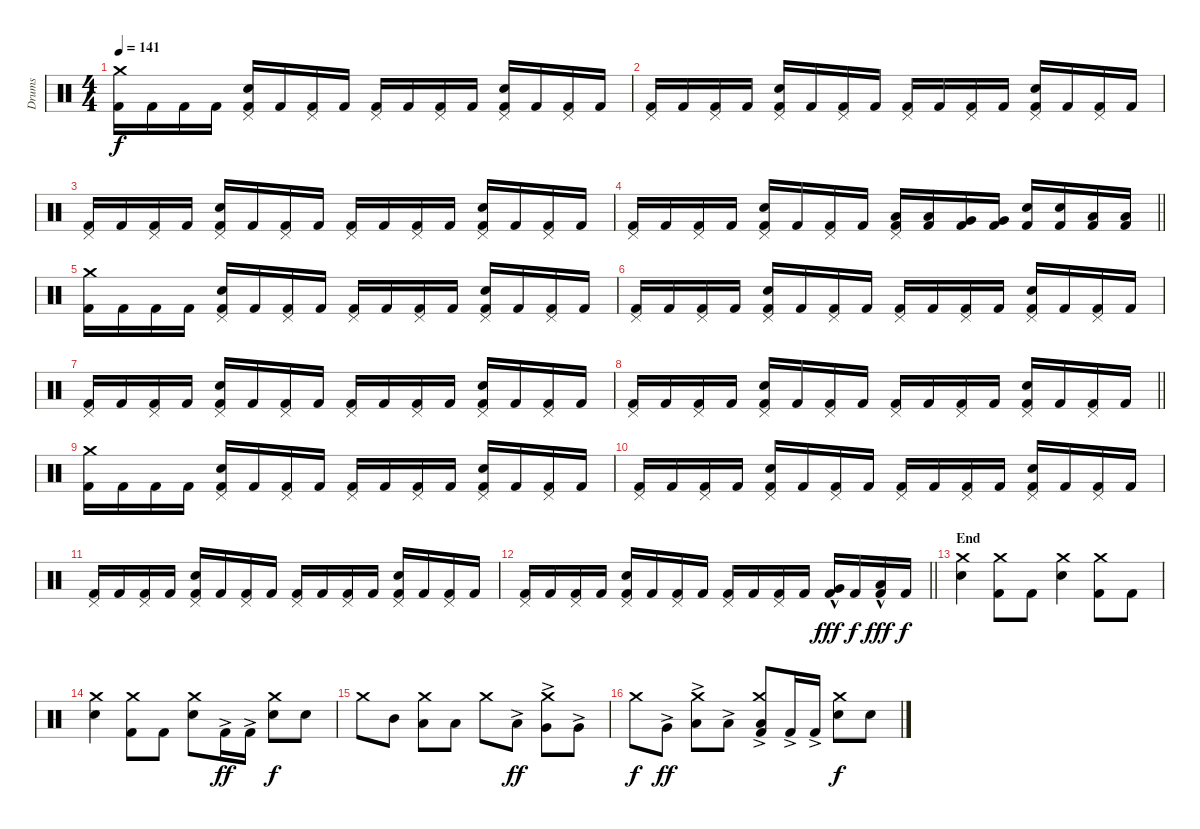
\track ("Drums" "Drums") {instrument percussion}
\staff {score}
\articulation defaults
\ts (4 4)
\section ("" "")
\tempo 141
\clef neutral
\ks c
("Kick (hit) 2" "Crash medium (hit)").16{dy f} "Kick (hit) 2".16 "Kick (hit) 2".16 "Kick (hit) 2".16 ("Kick (hit) 2" "Snare (hit) 2" "Pedal Hi-Hat (hit)").16 "Kick (hit) 2".16 ("Kick (hit) 2" "Pedal Hi-Hat (hit)").16 "Kick (hit) 2".16 ("Kick (hit) 2" "Pedal Hi-Hat (hit)").16 "Kick (hit) 2".16 ("Kick (hit) 2" "Pedal Hi-Hat (hit)").16 "Kick (hit) 2".16 ("Kick (hit) 2" "Snare (hit) 2" "Pedal Hi-Hat (hit)").16 "Kick (hit) 2".16 ("Kick (hit) 2" "Pedal Hi-Hat (hit)").16 "Kick (hit) 2".16 |
("Kick (hit) 2" "Pedal Hi-Hat (hit)").16 "Kick (hit) 2".16 ("Kick (hit) 2" "Pedal Hi-Hat (hit)").16 "Kick (hit) 2".16 ("Kick (hit) 2" "Snare (hit) 2" "Pedal Hi-Hat (hit)").16 "Kick (hit) 2".16 ("Kick (hit) 2" "Pedal Hi-Hat (hit)").16 "Kick (hit) 2".16 ("Kick (hit) 2" "Pedal Hi-Hat (hit)").16 "Kick (hit) 2".16 ("Kick (hit) 2" "Pedal Hi-Hat (hit)").16 "Kick (hit) 2".16 ("Kick (hit) 2" "Snare (hit) 2" "Pedal Hi-Hat (hit)").16 "Kick (hit) 2".16 ("Kick (hit) 2" "Pedal Hi-Hat (hit)").16 "Kick (hit) 2".16 |
("Kick (hit) 2" "Pedal Hi-Hat (hit)").16 "Kick (hit) 2".16 ("Kick (hit) 2" "Pedal Hi-Hat (hit)").16 "Kick (hit) 2".16 ("Kick (hit) 2" "Snare (hit) 2" "Pedal Hi-Hat (hit)").16 "Kick (hit) 2".16 ("Kick (hit) 2" "Pedal Hi-Hat (hit)").16 "Kick (hit) 2".16 ("Kick (hit) 2" "Pedal Hi-Hat (hit)").16 "Kick (hit) 2".16 ("Kick (hit) 2" "Pedal Hi-Hat (hit)").16 "Kick (hit) 2".16 ("Kick (hit) 2" "Snare (hit) 2" "Pedal Hi-Hat (hit)").16 "Kick (hit) 2".16 ("Kick (hit) 2" "Pedal Hi-Hat (hit)").16 "Kick (hit) 2".16 |
\barLineRight lightlight
("Kick (hit) 2" "Pedal Hi-Hat (hit)").16 "Kick (hit) 2".16 ("Kick (hit) 2" "Pedal Hi-Hat (hit)").16 "Kick (hit) 2".16 ("Kick (hit) 2" "Snare (hit) 2" "Pedal Hi-Hat (hit)").16 "Kick (hit) 2".16 ("Kick (hit) 2" "Pedal Hi-Hat (hit)").16 "Kick (hit) 2".16 ("Kick (hit) 2" "Low Tom (hit)" "Pedal Hi-Hat (hit)").16 ("Kick (hit) 2" "Low Tom (hit)").16 ("Kick (hit) 2" "Very Low Tom (hit)").16 ("Kick (hit) 2" "Very Low Tom (hit)").16 ("Kick (hit) 2" "Snare (hit) 2").16 ("Kick (hit) 2" "Snare (hit) 2").16 ("Kick (hit) 2" "Low Floor Tom (hit)").16 ("Kick (hit) 2" "Low Floor Tom (hit)").16 |
\section ("" "")
("Kick (hit) 2" "Crash medium (hit)").16 "Kick (hit) 2".16 "Kick (hit) 2".16 "Kick (hit) 2".16 ("Kick (hit) 2" "Snare (hit) 2" "Pedal Hi-Hat (hit)").16 "Kick (hit) 2".16 ("Kick (hit) 2" "Pedal Hi-Hat (hit)").16 "Kick (hit) 2".16 ("Kick (hit) 2" "Pedal Hi-Hat (hit)").16 "Kick (hit) 2".16 ("Kick (hit) 2" "Pedal Hi-Hat (hit)").16 "Kick (hit) 2".16 ("Kick (hit) 2" "Snare (hit) 2" "Pedal Hi-Hat (hit)").16 "Kick (hit) 2".16 ("Kick (hit) 2" "Pedal Hi-Hat (hit)").16 "Kick (hit) 2".16 |
("Kick (hit) 2" "Pedal Hi-Hat (hit)").16 "Kick (hit) 2".16 ("Kick (hit) 2" "Pedal Hi-Hat (hit)").16 "Kick (hit) 2".16 ("Kick (hit) 2" "Snare (hit) 2" "Pedal Hi-Hat (hit)").16 "Kick (hit) 2".16 ("Kick (hit) 2" "Pedal Hi-Hat (hit)").16 "Kick (hit) 2".16 ("Kick (hit) 2" "Pedal Hi-Hat (hit)").16 "Kick (hit) 2".16 ("Kick (hit) 2" "Pedal Hi-Hat (hit)").16 "Kick (hit) 2".16 ("Kick (hit) 2" "Snare (hit) 2" "Pedal Hi-Hat (hit)").16 "Kick (hit) 2".16 ("Kick (hit) 2" "Pedal Hi-Hat (hit)").16 "Kick (hit) 2".16 |
("Kick (hit) 2" "Pedal Hi-Hat (hit)").16 "Kick (hit) 2".16 ("Kick (hit) 2" "Pedal Hi-Hat (hit)").16 "Kick (hit) 2".16 ("Kick (hit) 2" "Snare (hit) 2" "Pedal Hi-Hat (hit)").16 "Kick (hit) 2".16 ("Kick (hit) 2" "Pedal Hi-Hat (hit)").16 "Kick (hit) 2".16 ("Kick (hit) 2" "Pedal Hi-Hat (hit)").16 "Kick (hit) 2".16 ("Kick (hit) 2" "Pedal Hi-Hat (hit)").16 "Kick (hit) 2".16 ("Kick (hit) 2" "Snare (hit) 2" "Pedal Hi-Hat (hit)").16 "Kick (hit) 2".16 ("Kick (hit) 2" "Pedal Hi-Hat (hit)").16 "Kick (hit) 2".16 |
\barLineRight lightlight
("Kick (hit) 2" "Pedal Hi-Hat (hit)").16 "Kick (hit) 2".16 ("Kick (hit) 2" "Pedal Hi-Hat (hit)").16 "Kick (hit) 2".16 ("Kick (hit) 2" "Snare (hit) 2" "Pedal Hi-Hat (hit)").16 "Kick (hit) 2".16 ("Kick (hit) 2" "Pedal Hi-Hat (hit)").16 "Kick (hit) 2".16 ("Kick (hit) 2" "Pedal Hi-Hat (hit)").16 "Kick (hit) 2".16 ("Kick (hit) 2" "Pedal Hi-Hat (hit)").16 "Kick (hit) 2".16 ("Kick (hit) 2" "Snare (hit) 2" "Pedal Hi-Hat (hit)").16 "Kick (hit) 2".16 ("Kick (hit) 2" "Pedal Hi-Hat (hit)").16 "Kick (hit) 2".16 |
\section ("" "")
("Kick (hit) 2" "Crash medium (hit)").16 "Kick (hit) 2".16 "Kick (hit) 2".16 "Kick (hit) 2".16 ("Kick (hit) 2" "Snare (hit) 2" "Pedal Hi-Hat (hit)").16 "Kick (hit) 2".16 ("Kick (hit) 2" "Pedal Hi-Hat (hit)").16 "Kick (hit) 2".16 ("Kick (hit) 2" "Pedal Hi-Hat (hit)").16 "Kick (hit) 2".16 ("Kick (hit) 2" "Pedal Hi-Hat (hit)").16 "Kick (hit) 2".16 ("Kick (hit) 2" "Snare (hit) 2" "Pedal Hi-Hat (hit)").16 "Kick (hit) 2".16 ("Kick (hit) 2" "Pedal Hi-Hat (hit)").16 "Kick (hit) 2".16 |
("Kick (hit) 2" "Pedal Hi-Hat (hit)").16 "Kick (hit) 2".16 ("Kick (hit) 2" "Pedal Hi-Hat (hit)").16 "Kick (hit) 2".16 ("Kick (hit) 2" "Snare (hit) 2" "Pedal Hi-Hat (hit)").16 "Kick (hit) 2".16 ("Kick (hit) 2" "Pedal Hi-Hat (hit)").16 "Kick (hit) 2".16 ("Kick (hit) 2" "Pedal Hi-Hat (hit)").16 "Kick (hit) 2".16 ("Kick (hit) 2" "Pedal Hi-Hat (hit)").16 "Kick (hit) 2".16 ("Kick (hit) 2" "Snare (hit) 2" "Pedal Hi-Hat (hit)").16 "Kick (hit) 2".16 ("Kick (hit) 2" "Pedal Hi-Hat (hit)").16 "Kick (hit) 2".16 |
("Kick (hit) 2" "Pedal Hi-Hat (hit)").16 "Kick (hit) 2".16 ("Kick (hit) 2" "Pedal Hi-Hat (hit)").16 "Kick (hit) 2".16 ("Kick (hit) 2" "Snare (hit) 2" "Pedal Hi-Hat (hit)").16 "Kick (hit) 2".16 ("Kick (hit) 2" "Pedal Hi-Hat (hit)").16 "Kick (hit) 2".16 ("Kick (hit) 2" "Pedal Hi-Hat (hit)").16 "Kick (hit) 2".16 ("Kick (hit) 2" "Pedal Hi-Hat (hit)").16 "Kick (hit) 2".16 ("Kick (hit) 2" "Snare (hit) 2" "Pedal Hi-Hat (hit)").16 "Kick (hit) 2".16 ("Kick (hit) 2" "Pedal Hi-Hat (hit)").16 "Kick (hit) 2".16 |
\barLineRight lightlight
("Kick (hit) 2" "Pedal Hi-Hat (hit)").16 "Kick (hit) 2".16 ("Kick (hit) 2" "Pedal Hi-Hat (hit)").16 "Kick (hit) 2".16 ("Kick (hit) 2" "Snare (hit) 2" "Pedal Hi-Hat (hit)").16 "Kick (hit) 2".16 ("Kick (hit) 2" "Pedal Hi-Hat (hit)").16 "Kick (hit) 2".16 ("Kick (hit) 2" "Pedal Hi-Hat (hit)").16 "Kick (hit) 2".16 ("Kick (hit) 2" "Pedal Hi-Hat (hit)").16 "Kick (hit) 2".16 ("Kick (hit) 2" "Very Low Tom (hit)"{hac}).16{dy fff} "Kick (hit) 2".16{dy f} ("Kick (hit) 2" "Low Floor Tom (hit)"{hac}).16{dy fff} "Kick (hit) 2".16{dy f} |
\section ("" "End")
("Snare (hit) 2" "Crash medium (hit)").4 ("Kick (hit) 2" "Crash medium (hit)").8 "Kick (hit) 2".8 ("Snare (hit) 2" "Crash medium (hit)").4 ("Kick (hit) 2" "Crash medium (hit)").8 "Kick (hit) 2".8 |
("Snare (hit) 2" "Crash medium (hit)").4 ("Kick (hit) 2" "Crash medium (hit)").8 "Kick (hit) 2".8 ("Snare (hit) 2" "Crash medium (hit)").8 "Kick (hit) 2"{ac}.16{dy ff} "Kick (hit) 2"{ac}.16 ("Snare (hit) 2" "Crash medium (hit)").8{dy f} "Snare (hit) 2".8 |
"Crash medium (hit)".8 "Mid Tom (hit)".8 ("Low Tom (hit)" "Crash medium (hit)").8 "Low Tom (hit)".8 "Crash medium (hit)".8 "Low Tom (hit)"{ac}.8{dy ff} ("Very Low Tom (hit)"{ac} "Crash medium (hit)").8 "Very Low Tom (hit)"{ac}.8 |
"Crash medium (hit)".8{dy f} "Very Low Tom (hit)"{ac}.8{dy ff} ("Low Floor Tom (hit)"{ac} "Crash medium (hit)").8 "Low Floor Tom (hit)"{ac}.8 ("Kick (hit) 2" "Low Floor Tom (hit)"{ac} "Crash medium (hit)").8 "Kick (hit) 2"{ac}.16 "Kick (hit) 2"{ac}.16 ("Snare (hit) 2" "Crash medium (hit)").8{dy f} "Snare (hit) 2".8
